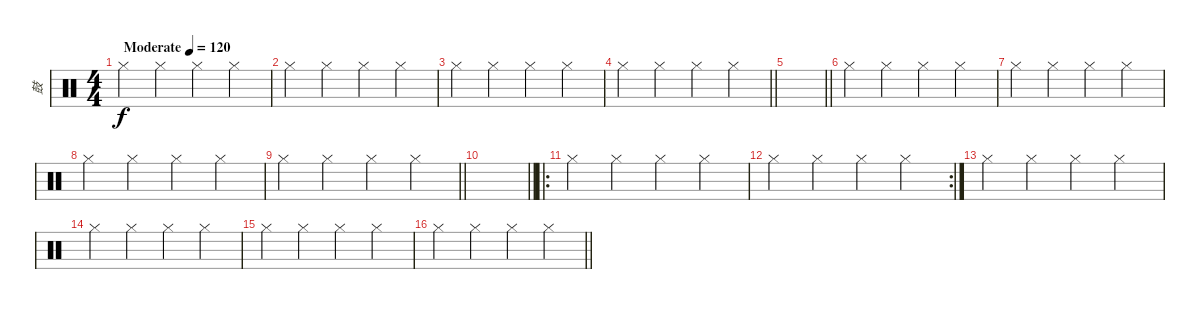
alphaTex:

\track ("鼓" "鼓") {instrument percussion}
\staff {score}
\articulation defaults
\ts (4 4)
\tempo (120 "Moderate")
\clef neutral
\ks c "Hi-Hat (closed)".4{dy f} "Hi-Hat (closed)".4 "Hi-Hat (closed)".4 "Hi-Hat (closed)".4
|
"Hi-Hat (closed)".4 "Hi-Hat (closed)".4 "Hi-Hat (closed)".4 "Hi-Hat (closed)".4 |
"Hi-Hat (closed)".4 "Hi-Hat (closed)".4 "Hi-Hat (closed)".4 "Hi-Hat (closed)".4 |
\barLineRight lightlight "Hi-Hat (closed)".4 "Hi-Hat (closed)".4 "Hi-Hat (closed)".4 "Hi-Hat (closed)".4
|
\barLineRight lightlight
|
"Hi-Hat (closed)".4 "Hi-Hat (closed)".4 "Hi-Hat (closed)".4 "Hi-Hat (closed)".4 |
"Hi-Hat (closed)".4 "Hi-Hat (closed)".4 "Hi-Hat (closed)".4 "Hi-Hat (closed)".4 |
"Hi-Hat (closed)".4 "Hi-Hat (closed)".4 "Hi-Hat (closed)".4 "Hi-Hat (closed)".4 |
\barLineRight lightlight "Hi-Hat (closed)".4 "Hi-Hat (closed)".4 "Hi-Hat (closed)".4 "Hi-Hat (closed)".4
|
\barLineRight lightlight
|
\ro "Hi-Hat (closed)".4 "Hi-Hat (closed)".4 "Hi-Hat (closed)".4 "Hi-Hat (closed)".4
|
\rc 2 "Hi-Hat (closed)".4 "Hi-Hat (closed)".4 "Hi-Hat (closed)".4 "Hi-Hat (closed)".4
|
"Hi-Hat (closed)".4 "Hi-Hat (closed)".4 "Hi-Hat (closed)".4 "Hi-Hat (closed)".4 |
"Hi-Hat (closed)".4 "Hi-Hat (closed)".4 "Hi-Hat (closed)".4 "Hi-Hat (closed)".4 |
"Hi-Hat (closed)".4 "Hi-Hat (closed)".4 "Hi-Hat (closed)".4 "Hi-Hat (closed)".4 |
\barLineRight lightlight "Hi-Hat (closed)".4 "Hi-Hat (closed)".4 "Hi-Hat (closed)".4 "Hi-Hat (closed)".4
